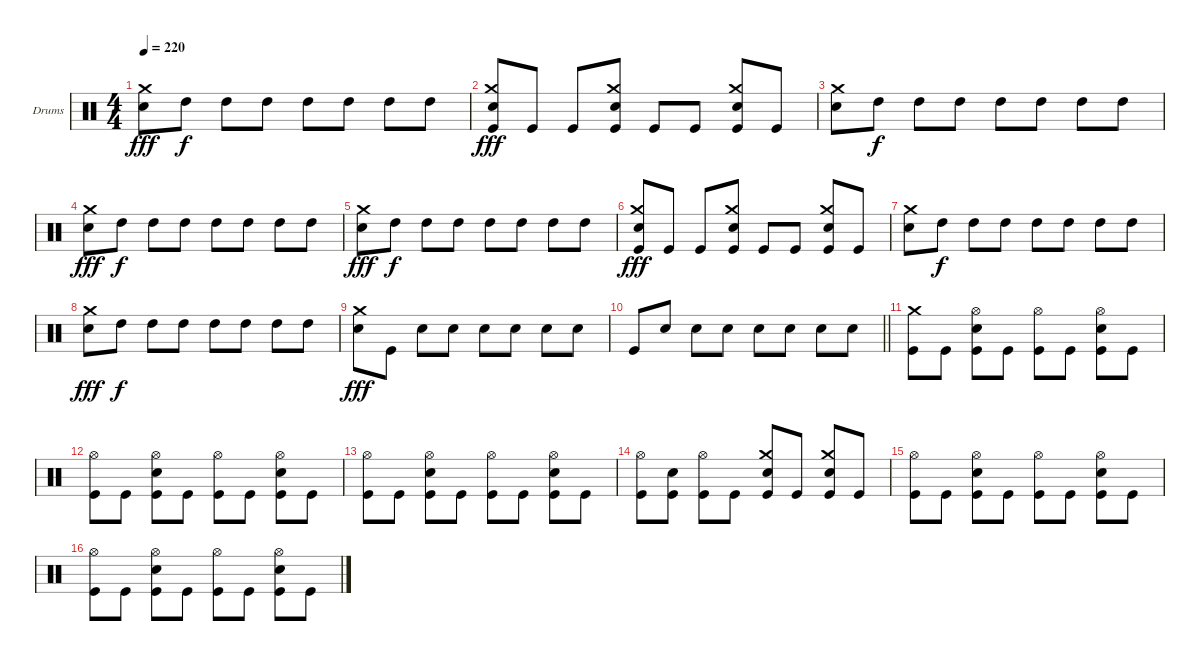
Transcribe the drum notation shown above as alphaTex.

\bracketExtendMode groupsimilarinstruments
\firstSystemTrackNameOrientation horizontal
\otherSystemsTrackNameOrientation horizontal
\track ("Stefan Schwarzmann" "Drums") {instrument percussion}
\staff {score}
\articulation defaults
\ts (4 4)
\tempo 220
\clef neutral
\ks c
("Snare (hit) 2" "Crash medium (hit)").8{dy fff} "High Tom (hit)".8{dy f} "High Tom (hit)".8 "High Tom (hit)".8 "High Tom (hit)".8 "High Tom (hit)".8 "High Tom (hit)".8 "High Tom (hit)".8 |
("Kick (hit)" "Snare (hit) 2" "Crash medium (hit)").8{dy fff} "Kick (hit)".8 "Kick (hit)".8 ("Kick (hit)" "Snare (hit) 2" "Crash medium (hit)").8 "Kick (hit)".8 "Kick (hit)".8 ("Kick (hit)" "Snare (hit) 2" "Crash medium (hit)").8 "Kick (hit)".8 |
("Snare (hit) 2" "Crash medium (hit)").8 "High Tom (hit)".8{dy f} "High Tom (hit)".8 "High Tom (hit)".8 "High Tom (hit)".8 "High Tom (hit)".8 "High Tom (hit)".8 "High Tom (hit)".8 |
("Snare (hit) 2" "Crash medium (hit)").8{dy fff} "High Tom (hit)".8{dy f} "High Tom (hit)".8 "High Tom (hit)".8 "High Tom (hit)".8 "High Tom (hit)".8 "High Tom (hit)".8 "High Tom (hit)".8 |
("Snare (hit) 2" "Crash medium (hit)").8{dy fff} "High Tom (hit)".8{dy f} "High Tom (hit)".8 "High Tom (hit)".8 "High Tom (hit)".8 "High Tom (hit)".8 "High Tom (hit)".8 "High Tom (hit)".8 |
("Kick (hit)" "Snare (hit) 2" "Crash medium (hit)").8{dy fff} "Kick (hit)".8 "Kick (hit)".8 ("Kick (hit)" "Snare (hit) 2" "Crash medium (hit)").8 "Kick (hit)".8 "Kick (hit)".8 ("Kick (hit)" "Snare (hit) 2" "Crash medium (hit)").8 "Kick (hit)".8 |
("Snare (hit) 2" "Crash medium (hit)").8 "High Tom (hit)".8{dy f} "High Tom (hit)".8 "High Tom (hit)".8 "High Tom (hit)".8 "High Tom (hit)".8 "High Tom (hit)".8 "High Tom (hit)".8 |
("Snare (hit) 2" "Crash medium (hit)").8{dy fff} "High Tom (hit)".8{dy f} "High Tom (hit)".8 "High Tom (hit)".8 "High Tom (hit)".8 "High Tom (hit)".8 "High Tom (hit)".8 "High Tom (hit)".8 |
("Snare (hit) 2" "Crash medium (hit)").8{dy fff} "Kick (hit)".8 "Snare (hit) 2".8 "Snare (hit) 2".8 "Snare (hit) 2".8 "Snare (hit) 2".8 "Snare (hit) 2".8 "Snare (hit) 2".8 |
\barLineRight lightlight "Kick (hit)".8 "Snare (hit) 2".8 "Snare (hit) 2".8 "Snare (hit) 2".8 "Snare (hit) 2".8 "Snare (hit) 2".8 "Snare (hit) 2".8 "Snare (hit) 2".8
|
("Kick (hit)" "Crash medium (hit)").8 "Kick (hit)".8 ("Kick (hit)" "Snare (hit) 2" "Hi-Hat (open)").8 "Kick (hit)".8 ("Kick (hit)" "Hi-Hat (open)").8 "Kick (hit)".8 ("Kick (hit)" "Snare (hit) 2" "Hi-Hat (open)").8 "Kick (hit)".8 |
("Kick (hit)" "Hi-Hat (open)").8 "Kick (hit)".8 ("Kick (hit)" "Snare (hit) 2" "Hi-Hat (open)").8 "Kick (hit)".8 ("Kick (hit)" "Hi-Hat (open)").8 "Kick (hit)".8 ("Kick (hit)" "Snare (hit) 2" "Hi-Hat (open)").8 "Kick (hit)".8 |
("Kick (hit)" "Hi-Hat (open)").8 "Kick (hit)".8 ("Kick (hit)" "Snare (hit) 2" "Hi-Hat (open)").8 "Kick (hit)".8 ("Kick (hit)" "Hi-Hat (open)").8 "Kick (hit)".8 ("Kick (hit)" "Snare (hit) 2" "Hi-Hat (open)").8 "Kick (hit)".8 |
("Kick (hit)" "Hi-Hat (open)").8 ("Kick (hit)" "Snare (hit) 2").8 ("Kick (hit)" "Hi-Hat (open)").8 "Kick (hit)".8 ("Kick (hit)" "Snare (hit) 2" "Crash medium (hit)").8 "Kick (hit)".8 ("Kick (hit)" "Snare (hit) 2" "Crash medium (hit)").8 "Kick (hit)".8 |
("Kick (hit)" "Hi-Hat (open)").8 "Kick (hit)".8 ("Kick (hit)" "Snare (hit) 2" "Hi-Hat (open)").8 "Kick (hit)".8 ("Kick (hit)" "Hi-Hat (open)").8 "Kick (hit)".8 ("Kick (hit)" "Snare (hit) 2" "Hi-Hat (open)").8 "Kick (hit)".8 |
("Kick (hit)" "Hi-Hat (open)").8 "Kick (hit)".8 ("Kick (hit)" "Snare (hit) 2" "Hi-Hat (open)").8 "Kick (hit)".8 ("Kick (hit)" "Hi-Hat (open)").8 "Kick (hit)".8 ("Kick (hit)" "Snare (hit) 2" "Hi-Hat (open)").8 "Kick (hit)".8
